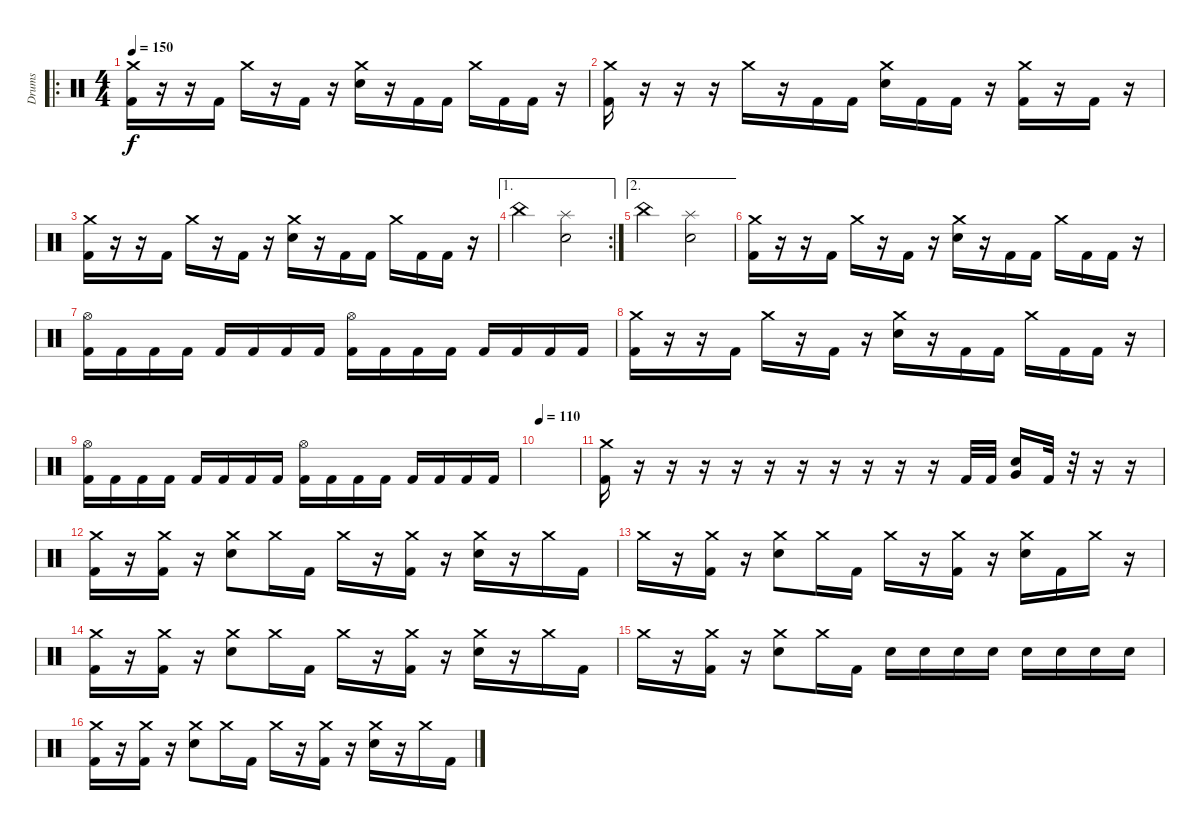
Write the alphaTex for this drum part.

\track ("Drums" "Drums") {instrument percussion}
\staff {score}
\articulation defaults
\ro
\ts (4 4)
\tempo 150
\clef neutral
\ks c
("Crash medium (hit)" "Kick (hit) 2").16{dy f} r.16 r.16 "Kick (hit) 2".16 "Crash medium (hit)".16 r.16 "Kick (hit) 2".16 r.16 ("Crash medium (hit)" "Electric Snare (hit)").16 r.16 "Kick (hit) 2".16 "Kick (hit) 2".16 "Crash medium (hit)".16 "Kick (hit) 2".16 "Kick (hit) 2".16 r.16 |
("Crash medium (hit)" "Kick (hit) 2").16 r.16 r.16 r.16 "Crash medium (hit)".16 r.16 "Kick (hit) 2".16 "Kick (hit) 2".16 ("Crash medium (hit)" "Electric Snare (hit)").16 "Kick (hit) 2".16 "Kick (hit) 2".16 r.16 ("Crash medium (hit)" "Kick (hit) 2").16 r.16 "Kick (hit) 2".16 r.16 |
("Crash medium (hit)" "Kick (hit) 2").16 r.16 r.16 "Kick (hit) 2".16 "Crash medium (hit)".16 r.16 "Kick (hit) 2".16 r.16 ("Crash medium (hit)" "Electric Snare (hit)").16 r.16 "Kick (hit) 2".16 "Kick (hit) 2".16 "Crash medium (hit)".16 "Kick (hit) 2".16 "Kick (hit) 2".16 r.16 |
\ae 1
\rc 2 "China (hit)".2
("Splash (hit)" "Electric Snare (hit)").2 |
\ae 2 "China (hit)".2
("Splash (hit)" "Electric Snare (hit)").2 |
("Crash medium (hit)" "Kick (hit) 2").16 r.16 r.16 "Kick (hit) 2".16 "Crash medium (hit)".16 r.16 "Kick (hit) 2".16 r.16 ("Crash medium (hit)" "Electric Snare (hit)").16 r.16 "Kick (hit) 2".16 "Kick (hit) 2".16 "Crash medium (hit)".16 "Kick (hit) 2".16 "Kick (hit) 2".16 r.16 |
("Hi-Hat (open)" "Kick (hit) 2").16 "Kick (hit) 2".16 "Kick (hit) 2".16 "Kick (hit) 2".16 "Kick (hit) 2".16 "Kick (hit) 2".16 "Kick (hit) 2".16 "Kick (hit) 2".16 ("Hi-Hat (open)" "Kick (hit) 2").16 "Kick (hit) 2".16 "Kick (hit) 2".16 "Kick (hit) 2".16 "Kick (hit) 2".16 "Kick (hit) 2".16 "Kick (hit) 2".16 "Kick (hit) 2".16 |
("Crash medium (hit)" "Kick (hit) 2").16 r.16 r.16 "Kick (hit) 2".16 "Crash medium (hit)".16 r.16 "Kick (hit) 2".16 r.16 ("Crash medium (hit)" "Electric Snare (hit)").16 r.16 "Kick (hit) 2".16 "Kick (hit) 2".16 "Crash medium (hit)".16 "Kick (hit) 2".16 "Kick (hit) 2".16 r.16 |
("Hi-Hat (open)" "Kick (hit) 2").16 "Kick (hit) 2".16 "Kick (hit) 2".16 "Kick (hit) 2".16 "Kick (hit) 2".16 "Kick (hit) 2".16 "Kick (hit) 2".16 "Kick (hit) 2".16 ("Hi-Hat (open)" "Kick (hit) 2").16 "Kick (hit) 2".16 "Kick (hit) 2".16 "Kick (hit) 2".16 "Kick (hit) 2".16 "Kick (hit) 2".16 "Kick (hit) 2".16 "Kick (hit) 2".16 |
\tempo 110
|
("Crash medium (hit)" "Kick (hit) 2").16 r.16 r.16 r.16 r.16 r.16 r.16 r.16 r.16 r.16 r.16 "Kick (hit) 2".32 "Kick (hit) 2".32 ("Very Low Tom (hit)" "Electric Snare (hit)").16 "Kick (hit) 2".32 r.32 r.16 r.16 |
("Crash medium (hit)" "Kick (hit) 2").16 r.16 ("Crash medium (hit)" "Kick (hit) 2").16 r.16 ("Crash medium (hit)" "Electric Snare (hit)").8 "Crash medium (hit)".16 "Kick (hit) 2".16 "Crash medium (hit)".16 r.16 ("Crash medium (hit)" "Kick (hit) 2").16 r.16 ("Crash medium (hit)" "Electric Snare (hit)").16 r.16 "Crash medium (hit)".16 "Kick (hit) 2".16 |
"Crash medium (hit)".16 r.16 ("Crash medium (hit)" "Kick (hit) 2").16 r.16 ("Crash medium (hit)" "Electric Snare (hit)").8 "Crash medium (hit)".16 "Kick (hit) 2".16 "Crash medium (hit)".16 r.16 ("Crash medium (hit)" "Kick (hit) 2").16 r.16 ("Crash medium (hit)" "Electric Snare (hit)").16 "Kick (hit) 2".16 "Crash medium (hit)".16 r.16 |
("Crash medium (hit)" "Kick (hit) 2").16 r.16 ("Crash medium (hit)" "Kick (hit) 2").16 r.16 ("Crash medium (hit)" "Electric Snare (hit)").8 "Crash medium (hit)".16 "Kick (hit) 2".16 "Crash medium (hit)".16 r.16 ("Crash medium (hit)" "Kick (hit) 2").16 r.16 ("Crash medium (hit)" "Electric Snare (hit)").16 r.16 "Crash medium (hit)".16 "Kick (hit) 2".16 |
"Crash medium (hit)".16 r.16 ("Crash medium (hit)" "Kick (hit) 2").16 r.16 ("Crash medium (hit)" "Electric Snare (hit)").8 "Crash medium (hit)".16 "Kick (hit) 2".16 "Electric Snare (hit)".16 "Electric Snare (hit)".16 "Electric Snare (hit)".16 "Electric Snare (hit)".16 "Electric Snare (hit)".16 "Electric Snare (hit)".16 "Electric Snare (hit)".16 "Electric Snare (hit)".16 |
("Crash medium (hit)" "Kick (hit) 2").16 r.16 ("Crash medium (hit)" "Kick (hit) 2").16 r.16 ("Crash medium (hit)" "Electric Snare (hit)").8 "Crash medium (hit)".16 "Kick (hit) 2".16 "Crash medium (hit)".16 r.16 ("Crash medium (hit)" "Kick (hit) 2").16 r.16 ("Crash medium (hit)" "Electric Snare (hit)").16 r.16 "Crash medium (hit)".16 "Kick (hit) 2".16
